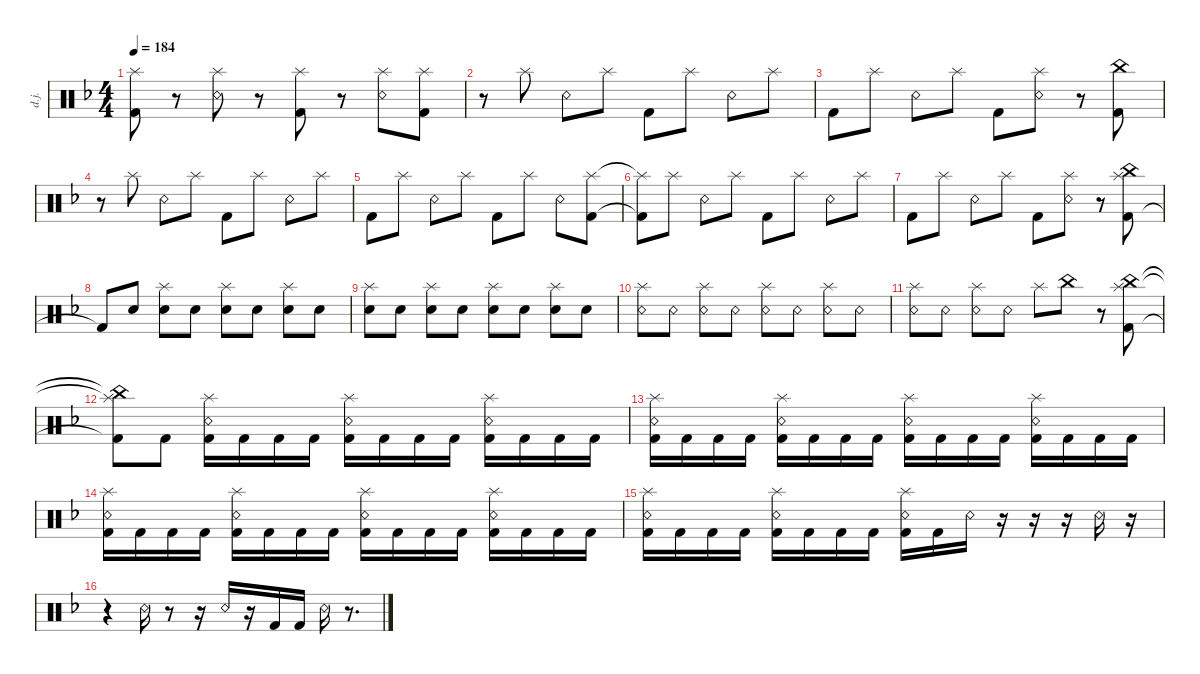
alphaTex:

\defaultSystemsLayout 4
\hideDynamics
\bracketExtendMode nobrackets
\otherSystemsTrackNameOrientation horizontal
\track ("Drumkit Jason" "d.j.") {instrument percussion}
\staff {score}
\articulation defaults
\ts (4 4)
\tempo 184
\clef neutral
\ks dminor
("Kick (hit) 2"{acc forcenatural} "Splash (hit)"{acc forcenatural}).8{dy ff beam Down} r.8{beam Down} ("Snare (rim shot)"{acc forcenatural} "Splash (hit)"{acc forcenatural}).8{beam Down} r.8{beam Down} ("Kick (hit) 2"{acc forcenatural} "Splash (hit)"{acc forcenatural}).8{beam Down} r.8{beam Down} ("Snare (rim shot)"{acc forcenatural} "Splash (hit)"{acc forcenatural}).8{beam Down} ("Kick (hit) 2"{acc forcenatural} "Splash (hit)"{acc forcenatural}).8{beam Down} |
r.8{beam Down} "Splash (hit)"{acc forcenatural}.8{beam Down} "Snare (rim shot)"{acc forcenatural}.8{beam Down} "Splash (hit)"{acc forcenatural}.8{beam Down} "Kick (hit) 2"{acc forcenatural}.8{beam Down} "Splash (hit)"{acc forcenatural}.8{beam Down} "Snare (rim shot)"{acc forcenatural}.8{beam Down} "Splash (hit)"{acc forcenatural}.8{beam Down} |
"Kick (hit) 2"{acc forcenatural}.8{beam Down} "Splash (hit)"{acc forcenatural}.8{beam Down} "Snare (rim shot)"{acc forcenatural}.8{beam Down} "Splash (hit)"{acc forcenatural}.8{beam Down} "Kick (hit) 2"{acc forcenatural}.8{beam Down} ("Snare (rim shot)"{acc forcenatural} "Splash (hit)"{acc forcenatural}).8{beam Down} r.8{beam Down} ("Kick (hit) 2"{acc forcenatural} "China (hit)"{acc forcenatural}).8{beam Down} |
r.8{beam Down} "Splash (hit)"{acc forcenatural}.8{beam Down} "Snare (rim shot)"{acc forcenatural}.8{beam Down} "Splash (hit)"{acc forcenatural}.8{beam Down} "Kick (hit) 2"{acc forcenatural}.8{beam Down} "Splash (hit)"{acc forcenatural}.8{beam Down} "Snare (rim shot)"{acc forcenatural}.8{beam Down} "Splash (hit)"{acc forcenatural}.8{beam Down} |
"Kick (hit) 2"{acc forcenatural}.8{beam Down} "Splash (hit)"{acc forcenatural}.8{beam Down} "Snare (rim shot)"{acc forcenatural}.8{beam Down} "Splash (hit)"{acc forcenatural}.8{beam Down} "Kick (hit) 2"{acc forcenatural}.8{beam Down} "Splash (hit)"{acc forcenatural}.8{beam Down} "Snare (rim shot)"{acc forcenatural}.8{beam Down} ("Splash (hit)"{acc forcenatural} "Kick (hit) 2"{acc forcenatural}).8{beam Down} |
("Splash (hit)"{t acc forcenatural} "Kick (hit) 2"{t acc forcenatural}).8{beam Down} "Splash (hit)"{acc forcenatural}.8{beam Down} "Snare (rim shot)"{acc forcenatural}.8{beam Down} "Splash (hit)"{acc forcenatural}.8{beam Down} "Kick (hit) 2"{acc forcenatural}.8{beam Down} "Splash (hit)"{acc forcenatural}.8{beam Down} "Snare (rim shot)"{acc forcenatural}.8{beam Down} "Splash (hit)"{acc forcenatural}.8{beam Down} |
"Kick (hit) 2"{acc forcenatural}.8{beam Down} "Splash (hit)"{acc forcenatural}.8{beam Down} "Snare (rim shot)"{acc forcenatural}.8{beam Down} "Splash (hit)"{acc forcenatural}.8{beam Down} "Kick (hit) 2"{acc forcenatural}.8{beam Down} ("Splash (hit)"{acc forcenatural} "Snare (rim shot)"{acc forcenatural}).8{beam Down} r.8{beam Down} ("Kick (hit) 2"{acc forcenatural} "Splash (hit)"{acc forcenatural} "China (hit)"{acc forcenatural}).8{beam Down} |
"Kick (hit) 2"{t acc forcenatural}.8{beam Up} "Snare (hit) 2"{acc forcenatural}.8{beam Up} ("Snare (hit) 2"{acc forcenatural} "Splash (hit)"{acc forcenatural}).8{beam Down} "Snare (hit) 2"{acc forcenatural}.8{beam Down} ("Snare (hit) 2"{acc forcenatural} "Splash (hit)"{acc forcenatural}).8{beam Down} "Snare (hit) 2"{acc forcenatural}.8{beam Down} ("Snare (hit) 2"{acc forcenatural} "Splash (hit)"{acc forcenatural}).8{beam Down} "Snare (hit) 2"{acc forcenatural}.8{beam Down} |
("Snare (hit) 2"{acc forcenatural} "Splash (hit)"{acc forcenatural}).8{beam Down} "Snare (hit) 2"{acc forcenatural}.8{beam Down} ("Snare (hit) 2"{acc forcenatural} "Splash (hit)"{acc forcenatural}).8{beam Down} "Snare (hit) 2"{acc forcenatural}.8{beam Down} ("Snare (hit) 2"{acc forcenatural} "Splash (hit)"{acc forcenatural}).8{beam Down} "Snare (hit) 2"{acc forcenatural}.8{beam Down} ("Snare (hit) 2"{acc forcenatural} "Splash (hit)"{acc forcenatural}).8{beam Down} "Snare (hit) 2"{acc forcenatural}.8{beam Down} |
("Snare (rim shot)"{acc forcenatural} "Splash (hit)"{acc forcenatural}).8{beam Down} "Snare (rim shot)"{acc forcenatural}.8{beam Down} ("Snare (rim shot)"{acc forcenatural} "Splash (hit)"{acc forcenatural}).8{beam Down} "Snare (rim shot)"{acc forcenatural}.8{beam Down} ("Snare (rim shot)"{acc forcenatural} "Splash (hit)"{acc forcenatural}).8{beam Down} "Snare (rim shot)"{acc forcenatural}.8{beam Down} ("Snare (rim shot)"{acc forcenatural} "Splash (hit)"{acc forcenatural}).8{beam Down} "Snare (rim shot)"{acc forcenatural}.8{beam Down} |
("Snare (rim shot)"{acc forcenatural} "Splash (hit)"{acc forcenatural}).8{beam Down} "Snare (rim shot)"{acc forcenatural}.8{beam Down} ("Snare (rim shot)"{acc forcenatural} "Splash (hit)"{acc forcenatural}).8{beam Down} "Snare (rim shot)"{acc forcenatural}.8{beam Down} "Splash (hit)"{acc forcenatural}.8{beam Down} "China (hit)"{acc forcenatural}.8{beam Down} r.8{beam Down} ("Kick (hit) 2"{acc forcenatural} "China (hit)"{acc forcenatural} "Splash (hit)"{acc forcenatural}).8{beam Down} |
("Kick (hit) 2"{t acc forcenatural} "China (hit)"{t acc forcenatural} "Splash (hit)"{t acc forcenatural}).8{beam Down} "Kick (hit) 2"{acc forcenatural}.8{beam Down} ("Kick (hit) 2"{acc forcenatural} "Snare (rim shot)"{acc forcenatural} "Splash (hit)"{acc forcenatural}).16{beam Down} "Kick (hit) 2"{acc forcenatural}.16{beam Down} "Kick (hit) 2"{acc forcenatural}.16{beam Down} "Kick (hit) 2"{acc forcenatural}.16{beam Down} ("Kick (hit) 2"{acc forcenatural} "Snare (rim shot)"{acc forcenatural} "Splash (hit)"{acc forcenatural}).16{beam Down} "Kick (hit) 2"{acc forcenatural}.16{beam Down} "Kick (hit) 2"{acc forcenatural}.16{beam Down} "Kick (hit) 2"{acc forcenatural}.16{beam Down} ("Kick (hit) 2"{acc forcenatural} "Snare (rim shot)"{acc forcenatural} "Splash (hit)"{acc forcenatural}).16{beam Down} "Kick (hit) 2"{acc forcenatural}.16{beam Down} "Kick (hit) 2"{acc forcenatural}.16{beam Down} "Kick (hit) 2"{acc forcenatural}.16{beam Down} |
("Kick (hit) 2"{acc forcenatural} "Snare (rim shot)"{acc forcenatural} "Splash (hit)"{acc forcenatural}).16{beam Down} "Kick (hit) 2"{acc forcenatural}.16{beam Down} "Kick (hit) 2"{acc forcenatural}.16{beam Down} "Kick (hit) 2"{acc forcenatural}.16{beam Down} ("Kick (hit) 2"{acc forcenatural} "Snare (rim shot)"{acc forcenatural} "Splash (hit)"{acc forcenatural}).16{beam Down} "Kick (hit) 2"{acc forcenatural}.16{beam Down} "Kick (hit) 2"{acc forcenatural}.16{beam Down} "Kick (hit) 2"{acc forcenatural}.16{beam Down} ("Kick (hit) 2"{acc forcenatural} "Snare (rim shot)"{acc forcenatural} "Splash (hit)"{acc forcenatural}).16{beam Down} "Kick (hit) 2"{acc forcenatural}.16{beam Down} "Kick (hit) 2"{acc forcenatural}.16{beam Down} "Kick (hit) 2"{acc forcenatural}.16{beam Down} ("Kick (hit) 2"{acc forcenatural} "Snare (rim shot)"{acc forcenatural} "Splash (hit)"{acc forcenatural}).16{beam Down} "Kick (hit) 2"{acc forcenatural}.16{beam Down} "Kick (hit) 2"{acc forcenatural}.16{beam Down} "Kick (hit) 2"{acc forcenatural}.16{beam Down} |
("Kick (hit) 2"{acc forcenatural} "Snare (rim shot)"{acc forcenatural} "Splash (hit)"{acc forcenatural}).16{beam Down} "Kick (hit) 2"{acc forcenatural}.16{beam Down} "Kick (hit) 2"{acc forcenatural}.16{beam Down} "Kick (hit) 2"{acc forcenatural}.16{beam Down} ("Kick (hit) 2"{acc forcenatural} "Snare (rim shot)"{acc forcenatural} "Splash (hit)"{acc forcenatural}).16{beam Down} "Kick (hit) 2"{acc forcenatural}.16{beam Down} "Kick (hit) 2"{acc forcenatural}.16{beam Down} "Kick (hit) 2"{acc forcenatural}.16{beam Down} ("Kick (hit) 2"{acc forcenatural} "Snare (rim shot)"{acc forcenatural} "Splash (hit)"{acc forcenatural}).16{beam Down} "Kick (hit) 2"{acc forcenatural}.16{beam Down} "Kick (hit) 2"{acc forcenatural}.16{beam Down} "Kick (hit) 2"{acc forcenatural}.16{beam Down} ("Kick (hit) 2"{acc forcenatural} "Snare (rim shot)"{acc forcenatural} "Splash (hit)"{acc forcenatural}).16{beam Down} "Kick (hit) 2"{acc forcenatural}.16{beam Down} "Kick (hit) 2"{acc forcenatural}.16{beam Down} "Kick (hit) 2"{acc forcenatural}.16{beam Down} |
("Kick (hit) 2"{acc forcenatural} "Snare (rim shot)"{acc forcenatural} "Splash (hit)"{acc forcenatural}).16{beam Down} "Kick (hit) 2"{acc forcenatural}.16{beam Down} "Kick (hit) 2"{acc forcenatural}.16{beam Down} "Kick (hit) 2"{acc forcenatural}.16{beam Down} ("Kick (hit) 2"{acc forcenatural} "Snare (rim shot)"{acc forcenatural} "Splash (hit)"{acc forcenatural}).16{beam Down} "Kick (hit) 2"{acc forcenatural}.16{beam Down} "Kick (hit) 2"{acc forcenatural}.16{beam Down} "Kick (hit) 2"{acc forcenatural}.16{beam Down} ("Kick (hit) 2"{acc forcenatural} "Snare (rim shot)"{acc forcenatural} "Splash (hit)"{acc forcenatural}).16{beam Down} "Kick (hit) 2"{acc forcenatural}.16{beam Down} "Snare (rim shot)"{acc forcenatural}.16{beam Down} r.16{beam Down} r.16{beam Down} r.16{beam Down} "Snare (rim shot)"{acc forcenatural}.16{beam Down} r.16{beam Down} |
r.4{beam Down} "Snare (rim shot)"{acc forcenatural}.16{beam Down} r.8{beam Down} r.16{beam Down} "Snare (rim shot)"{acc forcenatural}.16{beam Up} r.16{beam Up} "Kick (hit) 2"{acc forcenatural}.16{beam Up} "Kick (hit) 2"{acc forcenatural}.16{beam Up} "Snare (rim shot)"{acc forcenatural}.16{beam Down} r.8{d beam Down}
